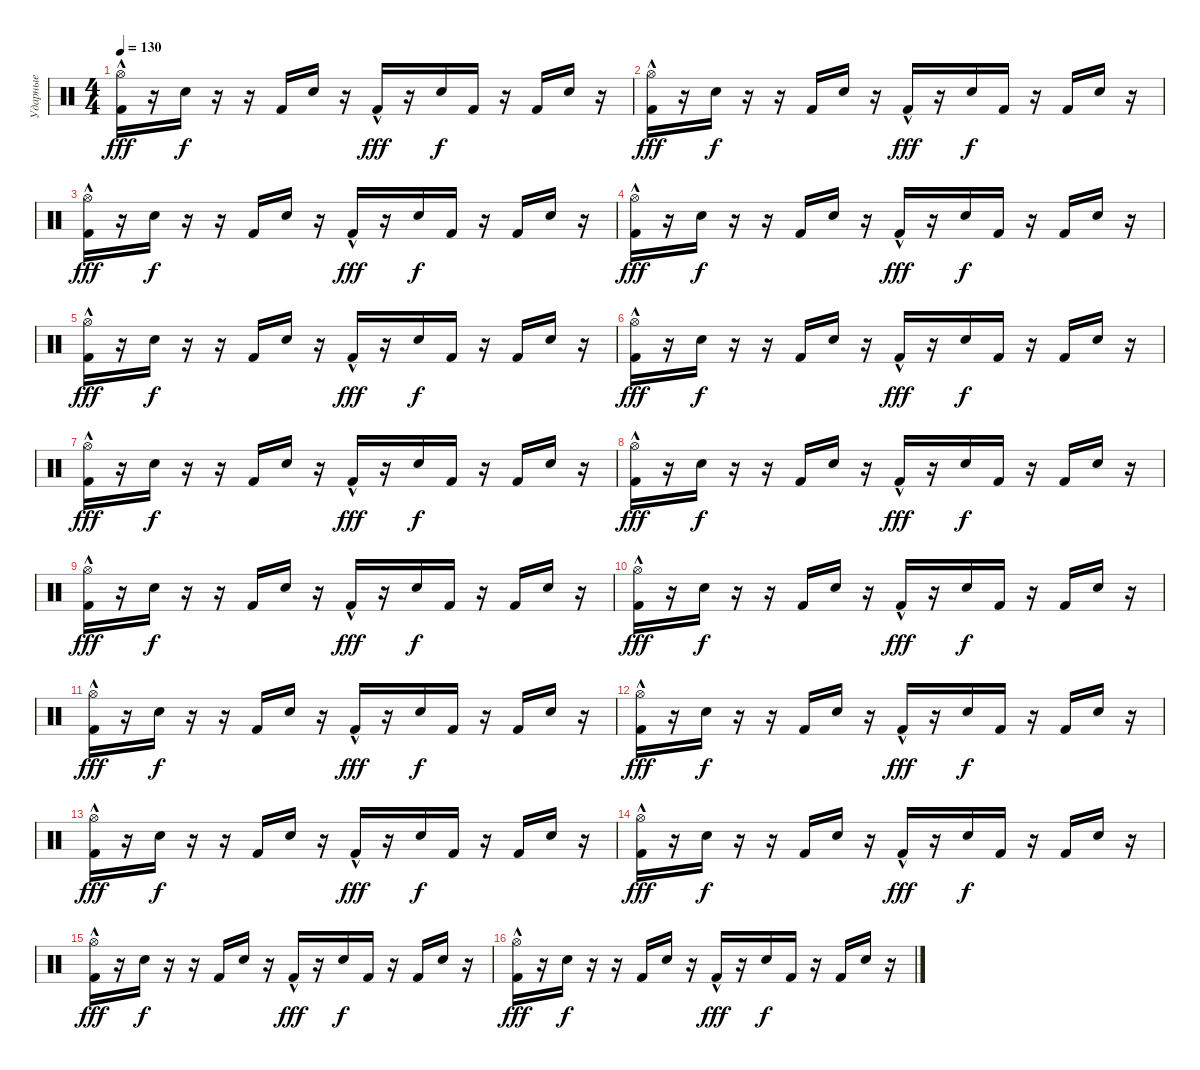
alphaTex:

\track ("Ударные" "Ударные") {instrument percussion}
\staff {score}
\articulation defaults
\ts (4 4)
\tempo 130
\clef neutral
\ks c
("Hi-Hat (open)" "Kick (hit) 2"{hac}).16{dy fff} r.16 "Electric Snare (hit)".16{dy f} r.16 r.16 "Kick (hit) 2".16 "Electric Snare (hit)".16 r.16 "Kick (hit) 2"{hac}.16{dy fff} r.16 "Electric Snare (hit)".16{dy f} "Kick (hit) 2".16 r.16 "Kick (hit) 2".16 "Electric Snare (hit)".16 r.16 |
("Hi-Hat (open)" "Kick (hit) 2"{hac}).16{dy fff} r.16 "Electric Snare (hit)".16{dy f} r.16 r.16 "Kick (hit) 2".16 "Electric Snare (hit)".16 r.16 "Kick (hit) 2"{hac}.16{dy fff} r.16 "Electric Snare (hit)".16{dy f} "Kick (hit) 2".16 r.16 "Kick (hit) 2".16 "Electric Snare (hit)".16 r.16 |
("Hi-Hat (open)" "Kick (hit) 2"{hac}).16{dy fff} r.16 "Electric Snare (hit)".16{dy f} r.16 r.16 "Kick (hit) 2".16 "Electric Snare (hit)".16 r.16 "Kick (hit) 2"{hac}.16{dy fff} r.16 "Electric Snare (hit)".16{dy f} "Kick (hit) 2".16 r.16 "Kick (hit) 2".16 "Electric Snare (hit)".16 r.16 |
("Hi-Hat (open)" "Kick (hit) 2"{hac}).16{dy fff} r.16 "Electric Snare (hit)".16{dy f} r.16 r.16 "Kick (hit) 2".16 "Electric Snare (hit)".16 r.16 "Kick (hit) 2"{hac}.16{dy fff} r.16 "Electric Snare (hit)".16{dy f} "Kick (hit) 2".16 r.16 "Kick (hit) 2".16 "Electric Snare (hit)".16 r.16 |
("Hi-Hat (open)" "Kick (hit) 2"{hac}).16{dy fff} r.16 "Electric Snare (hit)".16{dy f} r.16 r.16 "Kick (hit) 2".16 "Electric Snare (hit)".16 r.16 "Kick (hit) 2"{hac}.16{dy fff} r.16 "Electric Snare (hit)".16{dy f} "Kick (hit) 2".16 r.16 "Kick (hit) 2".16 "Electric Snare (hit)".16 r.16 |
("Hi-Hat (open)" "Kick (hit) 2"{hac}).16{dy fff} r.16 "Electric Snare (hit)".16{dy f} r.16 r.16 "Kick (hit) 2".16 "Electric Snare (hit)".16 r.16 "Kick (hit) 2"{hac}.16{dy fff} r.16 "Electric Snare (hit)".16{dy f} "Kick (hit) 2".16 r.16 "Kick (hit) 2".16 "Electric Snare (hit)".16 r.16 |
("Hi-Hat (open)" "Kick (hit) 2"{hac}).16{dy fff} r.16 "Electric Snare (hit)".16{dy f} r.16 r.16 "Kick (hit) 2".16 "Electric Snare (hit)".16 r.16 "Kick (hit) 2"{hac}.16{dy fff} r.16 "Electric Snare (hit)".16{dy f} "Kick (hit) 2".16 r.16 "Kick (hit) 2".16 "Electric Snare (hit)".16 r.16 |
("Hi-Hat (open)" "Kick (hit) 2"{hac}).16{dy fff} r.16 "Electric Snare (hit)".16{dy f} r.16 r.16 "Kick (hit) 2".16 "Electric Snare (hit)".16 r.16 "Kick (hit) 2"{hac}.16{dy fff} r.16 "Electric Snare (hit)".16{dy f} "Kick (hit) 2".16 r.16 "Kick (hit) 2".16 "Electric Snare (hit)".16 r.16 |
("Hi-Hat (open)" "Kick (hit) 2"{hac}).16{dy fff} r.16 "Electric Snare (hit)".16{dy f} r.16 r.16 "Kick (hit) 2".16 "Electric Snare (hit)".16 r.16 "Kick (hit) 2"{hac}.16{dy fff} r.16 "Electric Snare (hit)".16{dy f} "Kick (hit) 2".16 r.16 "Kick (hit) 2".16 "Electric Snare (hit)".16 r.16 |
("Hi-Hat (open)" "Kick (hit) 2"{hac}).16{dy fff} r.16 "Electric Snare (hit)".16{dy f} r.16 r.16 "Kick (hit) 2".16 "Electric Snare (hit)".16 r.16 "Kick (hit) 2"{hac}.16{dy fff} r.16 "Electric Snare (hit)".16{dy f} "Kick (hit) 2".16 r.16 "Kick (hit) 2".16 "Electric Snare (hit)".16 r.16 |
("Hi-Hat (open)" "Kick (hit) 2"{hac}).16{dy fff} r.16 "Electric Snare (hit)".16{dy f} r.16 r.16 "Kick (hit) 2".16 "Electric Snare (hit)".16 r.16 "Kick (hit) 2"{hac}.16{dy fff} r.16 "Electric Snare (hit)".16{dy f} "Kick (hit) 2".16 r.16 "Kick (hit) 2".16 "Electric Snare (hit)".16 r.16 |
("Hi-Hat (open)" "Kick (hit) 2"{hac}).16{dy fff} r.16 "Electric Snare (hit)".16{dy f} r.16 r.16 "Kick (hit) 2".16 "Electric Snare (hit)".16 r.16 "Kick (hit) 2"{hac}.16{dy fff} r.16 "Electric Snare (hit)".16{dy f} "Kick (hit) 2".16 r.16 "Kick (hit) 2".16 "Electric Snare (hit)".16 r.16 |
("Hi-Hat (open)" "Kick (hit) 2"{hac}).16{dy fff} r.16 "Electric Snare (hit)".16{dy f} r.16 r.16 "Kick (hit) 2".16 "Electric Snare (hit)".16 r.16 "Kick (hit) 2"{hac}.16{dy fff} r.16 "Electric Snare (hit)".16{dy f} "Kick (hit) 2".16 r.16 "Kick (hit) 2".16 "Electric Snare (hit)".16 r.16 |
("Hi-Hat (open)" "Kick (hit) 2"{hac}).16{dy fff} r.16 "Electric Snare (hit)".16{dy f} r.16 r.16 "Kick (hit) 2".16 "Electric Snare (hit)".16 r.16 "Kick (hit) 2"{hac}.16{dy fff} r.16 "Electric Snare (hit)".16{dy f} "Kick (hit) 2".16 r.16 "Kick (hit) 2".16 "Electric Snare (hit)".16 r.16 |
("Hi-Hat (open)" "Kick (hit) 2"{hac}).16{dy fff} r.16 "Electric Snare (hit)".16{dy f} r.16 r.16 "Kick (hit) 2".16 "Electric Snare (hit)".16 r.16 "Kick (hit) 2"{hac}.16{dy fff} r.16 "Electric Snare (hit)".16{dy f} "Kick (hit) 2".16 r.16 "Kick (hit) 2".16 "Electric Snare (hit)".16 r.16 |
("Hi-Hat (open)" "Kick (hit) 2"{hac}).16{dy fff} r.16 "Electric Snare (hit)".16{dy f} r.16 r.16 "Kick (hit) 2".16 "Electric Snare (hit)".16 r.16 "Kick (hit) 2"{hac}.16{dy fff} r.16 "Electric Snare (hit)".16{dy f} "Kick (hit) 2".16 r.16 "Kick (hit) 2".16 "Electric Snare (hit)".16 r.16
